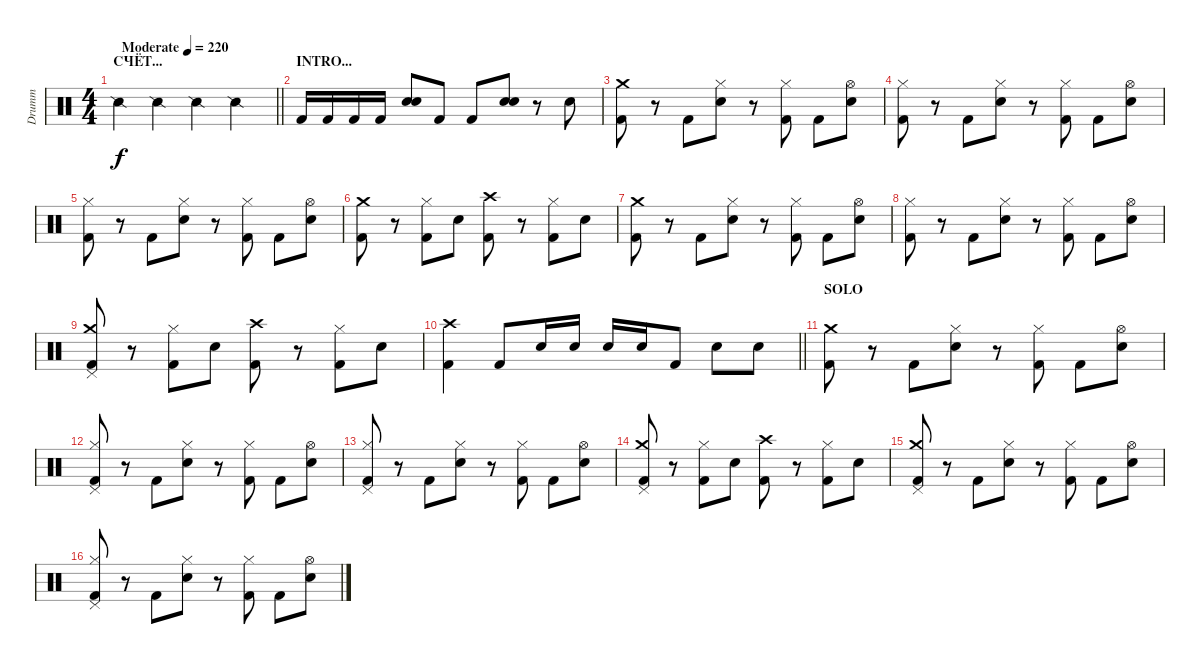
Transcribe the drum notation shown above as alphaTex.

\track ("Drumm" "Drumm") {instrument percussion}
\staff {score}
\articulation defaults
\ts (4 4)
\section ("" "СЧЁТ...")
\tempo (220 "Moderate")
\clef neutral
\barLineRight lightlight
\ks c "Snare (side stick) 2".4{dy f} "Snare (side stick) 2".4 "Snare (side stick) 2".4 "Snare (side stick) 2".4
|
\section ("" "INTRO...")
"Kick (hit) 2".16 "Kick (hit) 2".16 "Kick (hit) 2".16 "Kick (hit) 2".16 ("Snare (hit) 2" "Snare (hit) 2").8 "Kick (hit) 2".8 "Kick (hit) 2".8 ("Snare (hit) 2" "Snare (hit) 2").8 r.8 "Snare (hit) 2".8 |
("Crash medium (hit)" "Kick (hit) 2").8 r.8 "Kick (hit) 2".8 ("Hi-Hat (closed)" "Snare (hit) 2").8 r.8 ("Hi-Hat (closed)" "Kick (hit) 2").8 "Kick (hit) 2".8 ("Hi-Hat (open)" "Snare (hit) 2").8 |
("Hi-Hat (closed)" "Kick (hit) 2").8 r.8 "Kick (hit) 2".8 ("Hi-Hat (closed)" "Snare (hit) 2").8 r.8 ("Hi-Hat (closed)" "Kick (hit) 2").8 "Kick (hit) 2".8 ("Hi-Hat (open)" "Snare (hit) 2").8 |
("Hi-Hat (closed)" "Kick (hit) 2").8 r.8 "Kick (hit) 2".8 ("Hi-Hat (closed)" "Snare (hit) 2").8 r.8 ("Hi-Hat (closed)" "Kick (hit) 2").8 "Kick (hit) 2".8 ("Hi-Hat (open)" "Snare (hit) 2").8 |
("Crash medium (hit)" "Kick (hit) 2").8 r.8 ("Hi-Hat (closed)" "Kick (hit) 2").8 "Snare (hit) 2".8 ("Crash high (hit)" "Kick (hit) 2").8 r.8 ("Hi-Hat (closed)" "Kick (hit) 2").8 "Snare (hit) 2".8 |
("Crash medium (hit)" "Kick (hit) 2").8 r.8 "Kick (hit) 2".8 ("Hi-Hat (closed)" "Snare (hit) 2").8 r.8 ("Hi-Hat (closed)" "Kick (hit) 2").8 "Kick (hit) 2".8 ("Hi-Hat (open)" "Snare (hit) 2").8 |
("Hi-Hat (closed)" "Kick (hit) 2").8 r.8 "Kick (hit) 2".8 ("Hi-Hat (closed)" "Snare (hit) 2").8 r.8 ("Hi-Hat (closed)" "Kick (hit) 2").8 "Kick (hit) 2".8 ("Hi-Hat (open)" "Snare (hit) 2").8 |
("Crash medium (hit)" "Pedal Hi-Hat (hit)" "Kick (hit) 2").8 r.8 ("Hi-Hat (closed)" "Kick (hit) 2").8 "Snare (hit) 2".8 ("Crash high (hit)" "Kick (hit) 2").8 r.8 ("Hi-Hat (closed)" "Kick (hit) 2").8 "Snare (hit) 2".8 |
\barLineRight lightlight
("Crash high (hit)" "Kick (hit) 2").4 "Kick (hit) 2".8 "Snare (hit) 2".16 "Snare (hit) 2".16 "Snare (hit) 2".16 "Snare (hit) 2".16 "Kick (hit) 2".8 "Snare (hit) 2".8 "Snare (hit) 2".8 |
\section ("" "SOLO")
("Crash medium (hit)" "Kick (hit) 2").8 r.8 "Kick (hit) 2".8 ("Hi-Hat (closed)" "Snare (hit) 2").8 r.8 ("Hi-Hat (closed)" "Kick (hit) 2").8 "Kick (hit) 2".8 ("Hi-Hat (open)" "Snare (hit) 2").8 |
("Hi-Hat (closed)" "Pedal Hi-Hat (hit)" "Kick (hit) 2").8 r.8 "Kick (hit) 2".8 ("Hi-Hat (closed)" "Snare (hit) 2").8 r.8 ("Hi-Hat (closed)" "Kick (hit) 2").8 "Kick (hit) 2".8 ("Hi-Hat (open)" "Snare (hit) 2").8 |
("Hi-Hat (closed)" "Pedal Hi-Hat (hit)" "Kick (hit) 2").8 r.8 "Kick (hit) 2".8 ("Hi-Hat (closed)" "Snare (hit) 2").8 r.8 ("Hi-Hat (closed)" "Kick (hit) 2").8 "Kick (hit) 2".8 ("Hi-Hat (open)" "Snare (hit) 2").8 |
("Crash medium (hit)" "Pedal Hi-Hat (hit)" "Kick (hit) 2").8 r.8 ("Hi-Hat (closed)" "Kick (hit) 2").8 "Snare (hit) 2".8 ("Crash high (hit)" "Kick (hit) 2").8 r.8 ("Hi-Hat (closed)" "Kick (hit) 2").8 "Snare (hit) 2".8 |
("Crash medium (hit)" "Pedal Hi-Hat (hit)" "Kick (hit) 2").8 r.8 "Kick (hit) 2".8 ("Hi-Hat (closed)" "Snare (hit) 2").8 r.8 ("Hi-Hat (closed)" "Kick (hit) 2").8 "Kick (hit) 2".8 ("Hi-Hat (open)" "Snare (hit) 2").8 |
("Hi-Hat (closed)" "Pedal Hi-Hat (hit)" "Kick (hit) 2").8 r.8 "Kick (hit) 2".8 ("Hi-Hat (closed)" "Snare (hit) 2").8 r.8 ("Hi-Hat (closed)" "Kick (hit) 2").8 "Kick (hit) 2".8 ("Hi-Hat (open)" "Snare (hit) 2").8
